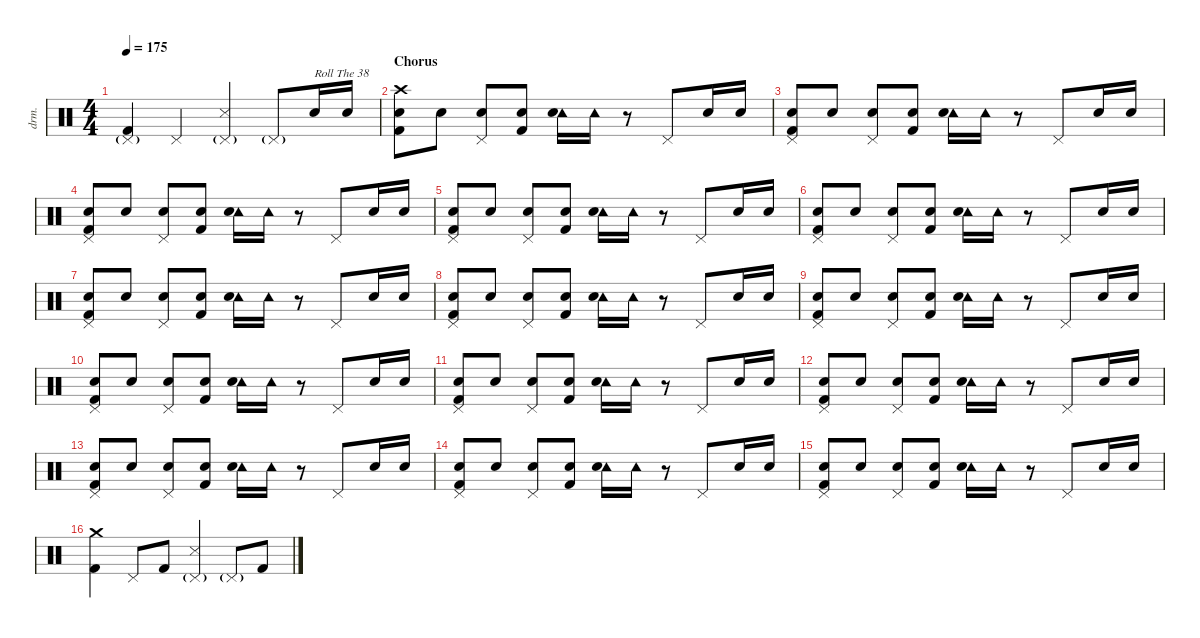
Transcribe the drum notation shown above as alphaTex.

\defaultSystemsLayout 4
\hideDynamics
\bracketExtendMode nobrackets
\otherSystemsTrackNameOrientation horizontal
\track ("Percussion" "drm.") {instrument percussion}
\staff {score}
\articulation defaults
\ts (4 4)
\tempo 175
\clef neutral
\ks c
("Pedal Hi-Hat (hit)"{g} "Kick (hit) 2").4{dy f} "Pedal Hi-Hat (hit)".4 ("Pedal Hi-Hat (hit)"{g} "Snare (side stick) 3").4 "Pedal Hi-Hat (hit)"{g}.8 "Snare (hit) 2".16{txt "Roll The 38" dy mp} "Snare (hit) 2".16 |
\section ("" "Chorus")
("Crash high (hit)" "Snare (hit) 2" "Kick (hit) 2").8{dy f} "Snare (hit) 2".8{dy p} ("Pedal Hi-Hat (hit)" "Snare (hit) 2").8{dy f} ("Snare (hit) 2" "Kick (hit) 2").8{dy p} ("Tambourine (hit)" "Snare (hit) 2").16{dy ff} "Tambourine (hit)".16{dy mp} r.8 "Pedal Hi-Hat (hit)".8{dy f} "Snare (hit) 2".16{dy p} "Snare (hit) 2".16 |
("Pedal Hi-Hat (hit)" "Snare (hit) 2" "Kick (hit) 2").8{dy f} "Snare (hit) 2".8{dy p} ("Pedal Hi-Hat (hit)" "Snare (hit) 2").8{dy f} ("Snare (hit) 2" "Kick (hit) 2").8{dy p} ("Tambourine (hit)" "Snare (hit) 2").16{dy ff} "Tambourine (hit)".16{dy mp} r.8 "Pedal Hi-Hat (hit)".8{dy f} "Snare (hit) 2".16{dy p} "Snare (hit) 2".16 |
("Pedal Hi-Hat (hit)" "Snare (hit) 2" "Kick (hit) 2").8{dy f} "Snare (hit) 2".8{dy p} ("Pedal Hi-Hat (hit)" "Snare (hit) 2").8{dy f} ("Snare (hit) 2" "Kick (hit) 2").8{dy p} ("Tambourine (hit)" "Snare (hit) 2").16{dy ff} "Tambourine (hit)".16{dy mp} r.8 "Pedal Hi-Hat (hit)".8{dy f} "Snare (hit) 2".16{dy p} "Snare (hit) 2".16 |
("Pedal Hi-Hat (hit)" "Snare (hit) 2" "Kick (hit) 2").8{dy f} "Snare (hit) 2".8{dy p} ("Pedal Hi-Hat (hit)" "Snare (hit) 2").8{dy f} ("Snare (hit) 2" "Kick (hit) 2").8{dy p} ("Tambourine (hit)" "Snare (hit) 2").16{dy ff} "Tambourine (hit)".16{dy mp} r.8 "Pedal Hi-Hat (hit)".8{dy f} "Snare (hit) 2".16{dy p} "Snare (hit) 2".16 |
("Pedal Hi-Hat (hit)" "Snare (hit) 2" "Kick (hit) 2").8{dy f} "Snare (hit) 2".8{dy p} ("Pedal Hi-Hat (hit)" "Snare (hit) 2").8{dy f} ("Snare (hit) 2" "Kick (hit) 2").8{dy p} ("Tambourine (hit)" "Snare (hit) 2").16{dy ff} "Tambourine (hit)".16{dy mp} r.8 "Pedal Hi-Hat (hit)".8{dy f} "Snare (hit) 2".16{dy p} "Snare (hit) 2".16 |
("Pedal Hi-Hat (hit)" "Snare (hit) 2" "Kick (hit) 2").8{dy f} "Snare (hit) 2".8{dy p} ("Pedal Hi-Hat (hit)" "Snare (hit) 2").8{dy f} ("Snare (hit) 2" "Kick (hit) 2").8{dy p} ("Tambourine (hit)" "Snare (hit) 2").16{dy ff} "Tambourine (hit)".16{dy mp} r.8 "Pedal Hi-Hat (hit)".8{dy f} "Snare (hit) 2".16{dy p} "Snare (hit) 2".16 |
("Pedal Hi-Hat (hit)" "Snare (hit) 2" "Kick (hit) 2").8{dy f} "Snare (hit) 2".8{dy p} ("Pedal Hi-Hat (hit)" "Snare (hit) 2").8{dy f} ("Snare (hit) 2" "Kick (hit) 2").8{dy p} ("Tambourine (hit)" "Snare (hit) 2").16{dy ff} "Tambourine (hit)".16{dy mp} r.8 "Pedal Hi-Hat (hit)".8{dy f} "Snare (hit) 2".16{dy p} "Snare (hit) 2".16 |
("Pedal Hi-Hat (hit)" "Snare (hit) 2" "Kick (hit) 2").8{dy f} "Snare (hit) 2".8{dy p} ("Pedal Hi-Hat (hit)" "Snare (hit) 2").8{dy f} ("Snare (hit) 2" "Kick (hit) 2").8{dy p} ("Tambourine (hit)" "Snare (hit) 2").16{dy ff} "Tambourine (hit)".16{dy mp} r.8 "Pedal Hi-Hat (hit)".8{dy f} "Snare (hit) 2".16{dy p} "Snare (hit) 2".16 |
("Pedal Hi-Hat (hit)" "Snare (hit) 2" "Kick (hit) 2").8{dy f} "Snare (hit) 2".8{dy p} ("Pedal Hi-Hat (hit)" "Snare (hit) 2").8{dy f} ("Snare (hit) 2" "Kick (hit) 2").8{dy p} ("Tambourine (hit)" "Snare (hit) 2").16{dy ff} "Tambourine (hit)".16{dy mp} r.8 "Pedal Hi-Hat (hit)".8{dy f} "Snare (hit) 2".16{dy p} "Snare (hit) 2".16 |
("Pedal Hi-Hat (hit)" "Snare (hit) 2" "Kick (hit) 2").8{dy f} "Snare (hit) 2".8{dy p} ("Pedal Hi-Hat (hit)" "Snare (hit) 2").8{dy f} ("Snare (hit) 2" "Kick (hit) 2").8{dy p} ("Tambourine (hit)" "Snare (hit) 2").16{dy ff} "Tambourine (hit)".16{dy mp} r.8 "Pedal Hi-Hat (hit)".8{dy f} "Snare (hit) 2".16{dy p} "Snare (hit) 2".16 |
("Pedal Hi-Hat (hit)" "Snare (hit) 2" "Kick (hit) 2").8{dy f} "Snare (hit) 2".8{dy p} ("Pedal Hi-Hat (hit)" "Snare (hit) 2").8{dy f} ("Snare (hit) 2" "Kick (hit) 2").8{dy p} ("Tambourine (hit)" "Snare (hit) 2").16{dy ff} "Tambourine (hit)".16{dy mp} r.8 "Pedal Hi-Hat (hit)".8{dy f} "Snare (hit) 2".16{dy p} "Snare (hit) 2".16 |
("Pedal Hi-Hat (hit)" "Snare (hit) 2" "Kick (hit) 2").8{dy f} "Snare (hit) 2".8{dy p} ("Pedal Hi-Hat (hit)" "Snare (hit) 2").8{dy f} ("Snare (hit) 2" "Kick (hit) 2").8{dy p} ("Tambourine (hit)" "Snare (hit) 2").16{dy ff} "Tambourine (hit)".16{dy mp} r.8 "Pedal Hi-Hat (hit)".8{dy f} "Snare (hit) 2".16{dy p} "Snare (hit) 2".16 |
("Pedal Hi-Hat (hit)" "Snare (hit) 2" "Kick (hit) 2").8{dy f} "Snare (hit) 2".8{dy p} ("Pedal Hi-Hat (hit)" "Snare (hit) 2").8{dy f} ("Snare (hit) 2" "Kick (hit) 2").8{dy p} ("Tambourine (hit)" "Snare (hit) 2").16{dy ff} "Tambourine (hit)".16{dy mp} r.8 "Pedal Hi-Hat (hit)".8{dy f} "Snare (hit) 2".16{dy p} "Snare (hit) 2".16 |
("Pedal Hi-Hat (hit)" "Snare (hit) 2" "Kick (hit) 2").8{dy f} "Snare (hit) 2".8{dy p} ("Pedal Hi-Hat (hit)" "Snare (hit) 2").8{dy f} ("Snare (hit) 2" "Kick (hit) 2").8{dy p} ("Tambourine (hit)" "Snare (hit) 2").16{dy ff} "Tambourine (hit)".16{dy mp} r.8 "Pedal Hi-Hat (hit)".8{dy f} "Snare (hit) 2".16{dy p} "Snare (hit) 2".16 |
("Crash medium (hit)" "Kick (hit) 2").4{dy f} "Pedal Hi-Hat (hit)".8 "Kick (hit) 2".8 ("Pedal Hi-Hat (hit)"{g} "Snare (side stick) 3").4 "Pedal Hi-Hat (hit)"{g}.8 "Kick (hit) 2".8
